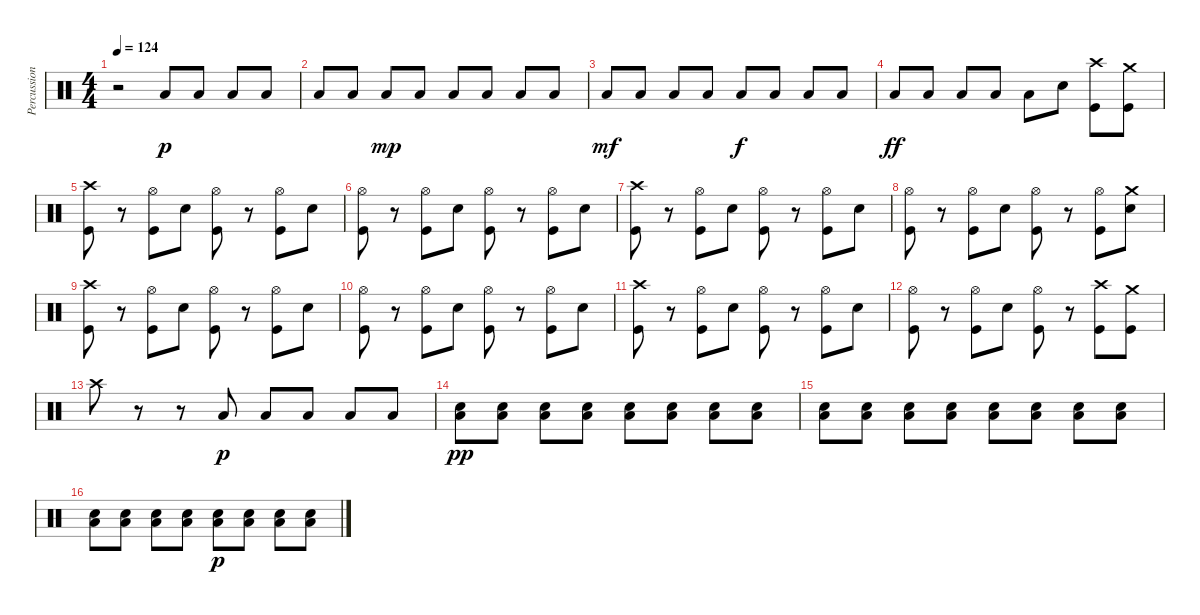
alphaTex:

\track ("Percussion" "Percussion") {instrument percussion}
\staff {score}
\articulation defaults
\ts (4 4)
\tempo 124
\clef neutral
\ks c
r.2{dy f} "Low Floor Tom (hit)".8{dy p} "Low Floor Tom (hit)".8 "Low Floor Tom (hit)".8 "Low Floor Tom (hit)".8 |
"Low Floor Tom (hit)".8 "Low Floor Tom (hit)".8 "Low Floor Tom (hit)".8{dy mp} "Low Floor Tom (hit)".8 "Low Floor Tom (hit)".8 "Low Floor Tom (hit)".8 "Low Floor Tom (hit)".8 "Low Floor Tom (hit)".8 |
"Low Floor Tom (hit)".8{dy mf} "Low Floor Tom (hit)".8 "Low Floor Tom (hit)".8 "Low Floor Tom (hit)".8 "Low Floor Tom (hit)".8{dy f} "Low Floor Tom (hit)".8 "Low Floor Tom (hit)".8 "Low Floor Tom (hit)".8 |
"Low Floor Tom (hit)".8{dy ff} "Low Floor Tom (hit)".8 "Low Floor Tom (hit)".8 "Low Floor Tom (hit)".8 "Low Floor Tom (hit)".8 "Snare (hit) 2".8 ("Crash high (hit)" "Kick (hit)").8 ("Crash medium (hit)" "Kick (hit)").8 |
("Crash high (hit)" "Kick (hit)").8 r.8 ("Hi-Hat (open)" "Kick (hit)").8 "Snare (hit) 2".8 ("Hi-Hat (open)" "Kick (hit)").8 r.8 ("Hi-Hat (open)" "Kick (hit)").8 "Snare (hit) 2".8 |
("Hi-Hat (open)" "Kick (hit)").8 r.8 ("Hi-Hat (open)" "Kick (hit)").8 "Snare (hit) 2".8 ("Hi-Hat (open)" "Kick (hit)").8 r.8 ("Hi-Hat (open)" "Kick (hit)").8 "Snare (hit) 2".8 |
("Crash high (hit)" "Kick (hit)").8 r.8 ("Hi-Hat (open)" "Kick (hit)").8 "Snare (hit) 2".8 ("Hi-Hat (open)" "Kick (hit)").8 r.8 ("Hi-Hat (open)" "Kick (hit)").8 "Snare (hit) 2".8 |
("Hi-Hat (open)" "Kick (hit)").8 r.8 ("Hi-Hat (open)" "Kick (hit)").8 "Snare (hit) 2".8 ("Hi-Hat (open)" "Kick (hit)").8 r.8 ("Hi-Hat (open)" "Kick (hit)").8 ("Crash medium (hit)" "Snare (hit) 2").8 |
("Crash high (hit)" "Kick (hit)").8 r.8 ("Hi-Hat (open)" "Kick (hit)").8 "Snare (hit) 2".8 ("Hi-Hat (open)" "Kick (hit)").8 r.8 ("Hi-Hat (open)" "Kick (hit)").8 "Snare (hit) 2".8 |
("Hi-Hat (open)" "Kick (hit)").8 r.8 ("Hi-Hat (open)" "Kick (hit)").8 "Snare (hit) 2".8 ("Hi-Hat (open)" "Kick (hit)").8 r.8 ("Hi-Hat (open)" "Kick (hit)").8 "Snare (hit) 2".8 |
("Crash high (hit)" "Kick (hit)").8 r.8 ("Hi-Hat (open)" "Kick (hit)").8 "Snare (hit) 2".8 ("Hi-Hat (open)" "Kick (hit)").8 r.8 ("Hi-Hat (open)" "Kick (hit)").8 "Snare (hit) 2".8 |
("Hi-Hat (open)" "Kick (hit)").8 r.8 ("Hi-Hat (open)" "Kick (hit)").8 "Snare (hit) 2".8 ("Hi-Hat (open)" "Kick (hit)").8 r.8 ("Crash high (hit)" "Kick (hit)").8 ("Crash medium (hit)" "Kick (hit)").8 |
"Crash high (hit)".8 r.8 r.8 "Low Floor Tom (hit)".8{dy p} "Low Floor Tom (hit)".8 "Low Floor Tom (hit)".8 "Low Floor Tom (hit)".8 "Low Floor Tom (hit)".8 |
("Low Floor Tom (hit)" "Snare (hit) 2").8{dy pp} ("Low Floor Tom (hit)" "Snare (hit) 2").8 ("Low Floor Tom (hit)" "Snare (hit) 2").8 ("Low Floor Tom (hit)" "Snare (hit) 2").8 ("Low Floor Tom (hit)" "Snare (hit) 2").8 ("Low Floor Tom (hit)" "Snare (hit) 2").8 ("Low Floor Tom (hit)" "Snare (hit) 2").8 ("Low Floor Tom (hit)" "Snare (hit) 2").8 |
("Low Floor Tom (hit)" "Snare (hit) 2").8 ("Low Floor Tom (hit)" "Snare (hit) 2").8 ("Low Floor Tom (hit)" "Snare (hit) 2").8 ("Low Floor Tom (hit)" "Snare (hit) 2").8 ("Low Floor Tom (hit)" "Snare (hit) 2").8 ("Low Floor Tom (hit)" "Snare (hit) 2").8 ("Low Floor Tom (hit)" "Snare (hit) 2").8 ("Low Floor Tom (hit)" "Snare (hit) 2").8 |
("Low Floor Tom (hit)" "Snare (hit) 2").8 ("Low Floor Tom (hit)" "Snare (hit) 2").8 ("Low Floor Tom (hit)" "Snare (hit) 2").8 ("Low Floor Tom (hit)" "Snare (hit) 2").8 ("Low Floor Tom (hit)" "Snare (hit) 2").8{dy p} ("Low Floor Tom (hit)" "Snare (hit) 2").8 ("Low Floor Tom (hit)" "Snare (hit) 2").8 ("Low Floor Tom (hit)" "Snare (hit) 2").8
